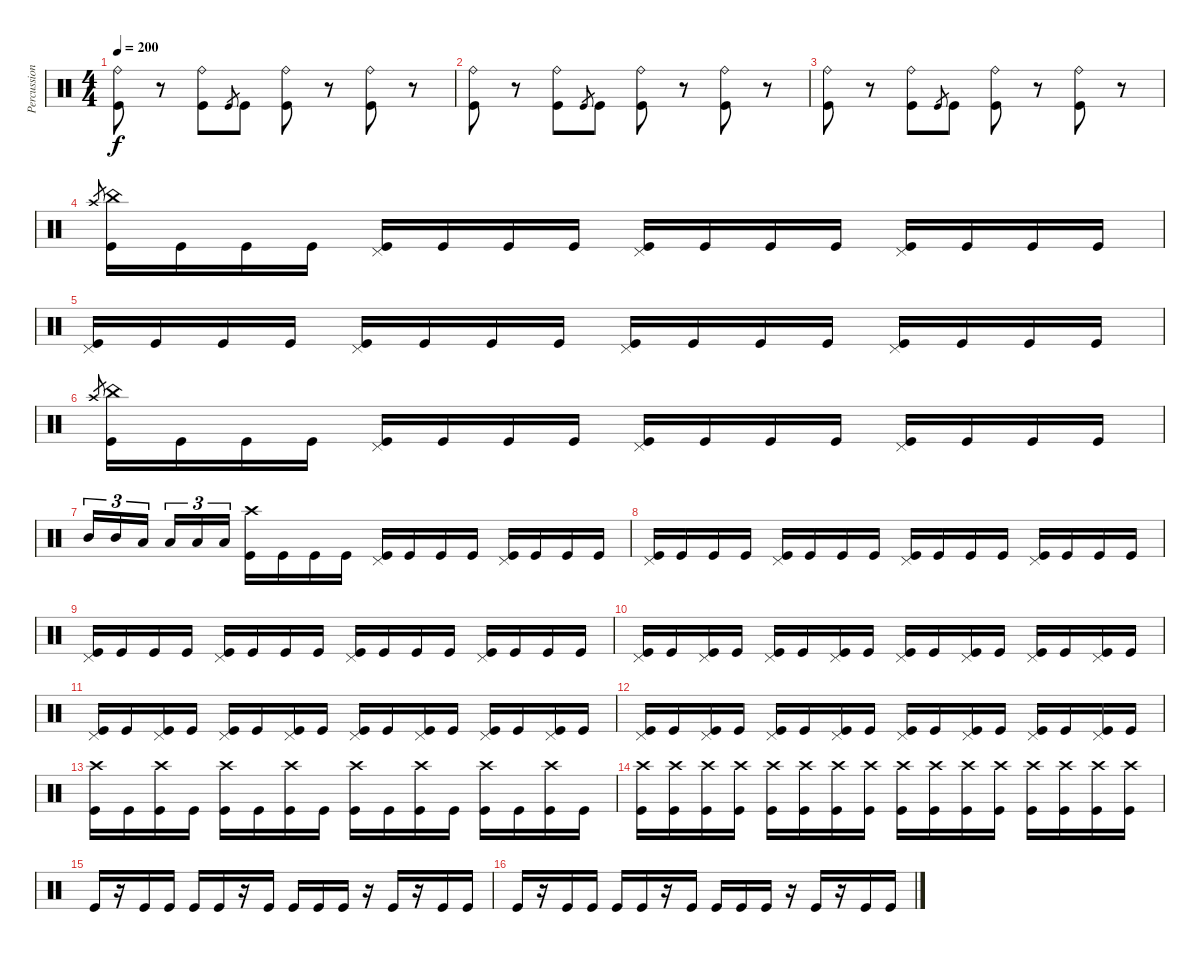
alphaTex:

\track ("Percussion" "Percussion") {instrument percussion}
\staff {score}
\articulation defaults
\ts (4 4)
\tempo 200
\clef neutral
\ks c
("Ride (bell)" "Kick (hit)").8{dy f} r.8 ("Ride (bell)" "Kick (hit)").8 "Kick (hit)".8{gr} "Kick (hit)".8 ("Ride (bell)" "Kick (hit)").8 r.8 ("Ride (bell)" "Kick (hit)").8 r.8 |
("Ride (bell)" "Kick (hit)").8 r.8 ("Ride (bell)" "Kick (hit)").8 "Kick (hit)".8{gr} "Kick (hit)".8 ("Ride (bell)" "Kick (hit)").8 r.8 ("Ride (bell)" "Kick (hit)").8 r.8 |
("Ride (bell)" "Kick (hit)").8 r.8 ("Ride (bell)" "Kick (hit)").8 "Kick (hit)".8{gr} "Kick (hit)".8 ("Ride (bell)" "Kick (hit)").8 r.8 ("Ride (bell)" "Kick (hit)").8 r.8 |
"Crash high (hit)".8{gr} ("China (hit)" "Kick (hit)").16 "Kick (hit)".16 "Kick (hit)".16 "Kick (hit)".16 ("Pedal Hi-Hat (hit)" "Kick (hit)").16 "Kick (hit)".16 "Kick (hit)".16 "Kick (hit)".16 ("Pedal Hi-Hat (hit)" "Kick (hit)").16 "Kick (hit)".16 "Kick (hit)".16 "Kick (hit)".16 ("Pedal Hi-Hat (hit)" "Kick (hit)").16 "Kick (hit)".16 "Kick (hit)".16 "Kick (hit)".16 |
("Pedal Hi-Hat (hit)" "Kick (hit)").16 "Kick (hit)".16 "Kick (hit)".16 "Kick (hit)".16 ("Pedal Hi-Hat (hit)" "Kick (hit)").16 "Kick (hit)".16 "Kick (hit)".16 "Kick (hit)".16 ("Pedal Hi-Hat (hit)" "Kick (hit)").16 "Kick (hit)".16 "Kick (hit)".16 "Kick (hit)".16 ("Pedal Hi-Hat (hit)" "Kick (hit)").16 "Kick (hit)".16 "Kick (hit)".16 "Kick (hit)".16 |
"Crash high (hit)".8{gr} ("China (hit)" "Kick (hit)").16 "Kick (hit)".16 "Kick (hit)".16 "Kick (hit)".16 ("Pedal Hi-Hat (hit)" "Kick (hit)").16 "Kick (hit)".16 "Kick (hit)".16 "Kick (hit)".16 ("Pedal Hi-Hat (hit)" "Kick (hit)").16 "Kick (hit)".16 "Kick (hit)".16 "Kick (hit)".16 ("Pedal Hi-Hat (hit)" "Kick (hit)").16 "Kick (hit)".16 "Kick (hit)".16 "Kick (hit)".16 |
"Mid Tom (hit)".16{tu (3 2)} "Mid Tom (hit)".16{tu (3 2)} "Low Tom (hit)".16{tu (3 2)} "Low Tom (hit)".16{tu (3 2)} "Low Tom (hit)".16{tu (3 2)} "Low Tom (hit)".16{tu (3 2)} ("Crash high (hit)" "Kick (hit)").16 "Kick (hit)".16 "Kick (hit)".16 "Kick (hit)".16 ("Pedal Hi-Hat (hit)" "Kick (hit)").16 "Kick (hit)".16 "Kick (hit)".16 "Kick (hit)".16 ("Pedal Hi-Hat (hit)" "Kick (hit)").16 "Kick (hit)".16 "Kick (hit)".16 "Kick (hit)".16 |
("Pedal Hi-Hat (hit)" "Kick (hit)").16 "Kick (hit)".16 "Kick (hit)".16 "Kick (hit)".16 ("Pedal Hi-Hat (hit)" "Kick (hit)").16 "Kick (hit)".16 "Kick (hit)".16 "Kick (hit)".16 ("Pedal Hi-Hat (hit)" "Kick (hit)").16 "Kick (hit)".16 "Kick (hit)".16 "Kick (hit)".16 ("Pedal Hi-Hat (hit)" "Kick (hit)").16 "Kick (hit)".16 "Kick (hit)".16 "Kick (hit)".16 |
("Pedal Hi-Hat (hit)" "Kick (hit)").16 "Kick (hit)".16 "Kick (hit)".16 "Kick (hit)".16 ("Pedal Hi-Hat (hit)" "Kick (hit)").16 "Kick (hit)".16 "Kick (hit)".16 "Kick (hit)".16 ("Pedal Hi-Hat (hit)" "Kick (hit)").16 "Kick (hit)".16 "Kick (hit)".16 "Kick (hit)".16 ("Pedal Hi-Hat (hit)" "Kick (hit)").16 "Kick (hit)".16 "Kick (hit)".16 "Kick (hit)".16 |
("Pedal Hi-Hat (hit)" "Kick (hit)").16 "Kick (hit)".16 ("Pedal Hi-Hat (hit)" "Kick (hit)").16 "Kick (hit)".16 ("Pedal Hi-Hat (hit)" "Kick (hit)").16 "Kick (hit)".16 ("Pedal Hi-Hat (hit)" "Kick (hit)").16 "Kick (hit)".16 ("Pedal Hi-Hat (hit)" "Kick (hit)").16 "Kick (hit)".16 ("Pedal Hi-Hat (hit)" "Kick (hit)").16 "Kick (hit)".16 ("Pedal Hi-Hat (hit)" "Kick (hit)").16 "Kick (hit)".16 ("Pedal Hi-Hat (hit)" "Kick (hit)").16 "Kick (hit)".16 |
("Pedal Hi-Hat (hit)" "Kick (hit)").16 "Kick (hit)".16 ("Pedal Hi-Hat (hit)" "Kick (hit)").16 "Kick (hit)".16 ("Pedal Hi-Hat (hit)" "Kick (hit)").16 "Kick (hit)".16 ("Pedal Hi-Hat (hit)" "Kick (hit)").16 "Kick (hit)".16 ("Pedal Hi-Hat (hit)" "Kick (hit)").16 "Kick (hit)".16 ("Pedal Hi-Hat (hit)" "Kick (hit)").16 "Kick (hit)".16 ("Pedal Hi-Hat (hit)" "Kick (hit)").16 "Kick (hit)".16 ("Pedal Hi-Hat (hit)" "Kick (hit)").16 "Kick (hit)".16 |
("Pedal Hi-Hat (hit)" "Kick (hit)").16 "Kick (hit)".16 ("Pedal Hi-Hat (hit)" "Kick (hit)").16 "Kick (hit)".16 ("Pedal Hi-Hat (hit)" "Kick (hit)").16 "Kick (hit)".16 ("Pedal Hi-Hat (hit)" "Kick (hit)").16 "Kick (hit)".16 ("Pedal Hi-Hat (hit)" "Kick (hit)").16 "Kick (hit)".16 ("Pedal Hi-Hat (hit)" "Kick (hit)").16 "Kick (hit)".16 ("Pedal Hi-Hat (hit)" "Kick (hit)").16 "Kick (hit)".16 ("Pedal Hi-Hat (hit)" "Kick (hit)").16 "Kick (hit)".16 |
("Crash high (hit)" "Kick (hit)").16 "Kick (hit)".16 ("Crash high (hit)" "Kick (hit)").16 "Kick (hit)".16 ("Crash high (hit)" "Kick (hit)").16 "Kick (hit)".16 ("Crash high (hit)" "Kick (hit)").16 "Kick (hit)".16 ("Crash high (hit)" "Kick (hit)").16 "Kick (hit)".16 ("Crash high (hit)" "Kick (hit)").16 "Kick (hit)".16 ("Crash high (hit)" "Kick (hit)").16 "Kick (hit)".16 ("Crash high (hit)" "Kick (hit)").16 "Kick (hit)".16 |
("Crash high (hit)" "Kick (hit)").16 ("Crash high (hit)" "Kick (hit)").16 ("Crash high (hit)" "Kick (hit)").16 ("Crash high (hit)" "Kick (hit)").16 ("Crash high (hit)" "Kick (hit)").16 ("Crash high (hit)" "Kick (hit)").16 ("Crash high (hit)" "Kick (hit)").16 ("Crash high (hit)" "Kick (hit)").16 ("Crash high (hit)" "Kick (hit)").16 ("Crash high (hit)" "Kick (hit)").16 ("Crash high (hit)" "Kick (hit)").16 ("Crash high (hit)" "Kick (hit)").16 ("Crash high (hit)" "Kick (hit)").16 ("Crash high (hit)" "Kick (hit)").16 ("Crash high (hit)" "Kick (hit)").16 ("Crash high (hit)" "Kick (hit)").16 |
"Kick (hit)".16 r.16 "Kick (hit)".16 "Kick (hit)".16 "Kick (hit)".16 "Kick (hit)".16 r.16 "Kick (hit)".16 "Kick (hit)".16 "Kick (hit)".16 "Kick (hit)".16 r.16 "Kick (hit)".16 r.16 "Kick (hit)".16 "Kick (hit)".16 |
"Kick (hit)".16 r.16 "Kick (hit)".16 "Kick (hit)".16 "Kick (hit)".16 "Kick (hit)".16 r.16 "Kick (hit)".16 "Kick (hit)".16 "Kick (hit)".16 "Kick (hit)".16 r.16 "Kick (hit)".16 r.16 "Kick (hit)".16 "Kick (hit)".16
